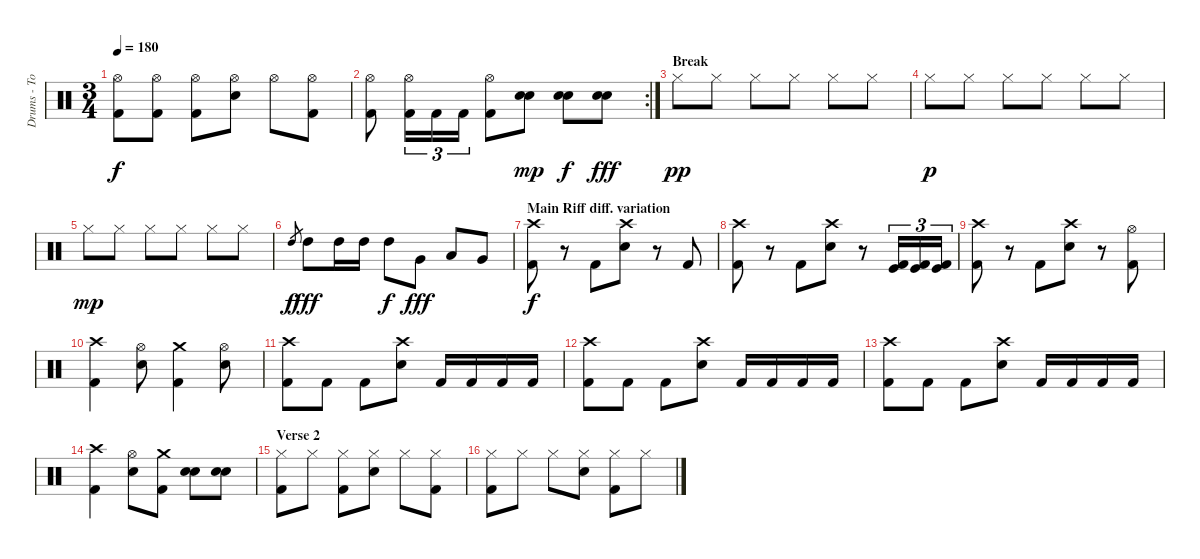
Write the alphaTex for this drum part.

\track ("Drums - Tomas" "Drums - To") {instrument percussion}
\staff {score}
\articulation defaults
\ts (3 4)
\tempo 180
\clef neutral
\ks c
("Hi-Hat (open)" "Kick (hit) 2").8{dy f} ("Hi-Hat (open)" "Kick (hit) 2").8 ("Hi-Hat (open)" "Kick (hit) 2").8 ("Hi-Hat (open)" "Electric Snare (hit)").8 "Hi-Hat (open)".8 ("Hi-Hat (open)" "Kick (hit) 2").8 |
\rc 2
("Hi-Hat (open)" "Kick (hit) 2").8 ("Hi-Hat (open)" "Kick (hit) 2").16{tu (3 2)} "Kick (hit) 2".16{tu (3 2)} "Kick (hit) 2".16{tu (3 2)} ("Hi-Hat (open)" "Kick (hit) 2").8 ("Electric Snare (hit)" "Electric Snare (hit)").8{dy mp} ("Electric Snare (hit)" "Electric Snare (hit)").8{dy f} ("Electric Snare (hit)" "Electric Snare (hit)").8{dy fff} |
\section ("" "Break")
"Hi-Hat (closed)".8{dy pp} "Hi-Hat (closed)".8 "Hi-Hat (closed)".8 "Hi-Hat (closed)".8 "Hi-Hat (closed)".8 "Hi-Hat (closed)".8 |
"Hi-Hat (closed)".8{dy p} "Hi-Hat (closed)".8 "Hi-Hat (closed)".8 "Hi-Hat (closed)".8 "Hi-Hat (closed)".8 "Hi-Hat (closed)".8 |
"Hi-Hat (closed)".8{dy mp} "Hi-Hat (closed)".8 "Hi-Hat (closed)".8 "Hi-Hat (closed)".8 "Hi-Hat (closed)".8 "Hi-Hat (closed)".8 |
"High Tom (hit)".8{gr dy f} "High Tom (hit)".8{dy fff} "High Tom (hit)".16 "High Tom (hit)".16 "High Tom (hit)".8{dy f} "Very Low Tom (hit)".8{dy fff} "Low Tom (hit)".8 "Very Low Tom (hit)".8 |
\section ("" "Main Riff diff. variation")
("Crash high (hit)" "Kick (hit) 2").8{dy f} r.8 "Kick (hit) 2".8 ("Crash high (hit)" "Electric Snare (hit)").8 r.8 "Kick (hit) 2".8 |
("Crash high (hit)" "Kick (hit) 2").8 r.8 "Kick (hit) 2".8 ("Crash high (hit)" "Electric Snare (hit)").8 r.8 ("Kick (hit)" "Kick (hit) 2").16{tu (3 2)} ("Kick (hit)" "Kick (hit) 2").16{tu (3 2)} ("Kick (hit)" "Kick (hit) 2").16{tu (3 2)} |
("Crash high (hit)" "Kick (hit) 2").8 r.8 "Kick (hit) 2".8 ("Crash high (hit)" "Electric Snare (hit)").8 r.8 ("Hi-Hat (open)" "Kick (hit) 2").8 |
("Crash high (hit)" "Kick (hit) 2").4 ("Hi-Hat (open)" "Electric Snare (hit)").8 ("Crash medium (hit)" "Kick (hit) 2").4 ("Hi-Hat (open)" "Electric Snare (hit)").8 |
("Crash high (hit)" "Kick (hit) 2").8 "Kick (hit) 2".8 "Kick (hit) 2".8 ("Crash high (hit)" "Electric Snare (hit)").8 "Kick (hit) 2".16 "Kick (hit) 2".16 "Kick (hit) 2".16 "Kick (hit) 2".16 |
("Crash high (hit)" "Kick (hit) 2").8 "Kick (hit) 2".8 "Kick (hit) 2".8 ("Crash high (hit)" "Electric Snare (hit)").8 "Kick (hit) 2".16 "Kick (hit) 2".16 "Kick (hit) 2".16 "Kick (hit) 2".16 |
("Crash high (hit)" "Kick (hit) 2").8 "Kick (hit) 2".8 "Kick (hit) 2".8 ("Crash high (hit)" "Electric Snare (hit)").8 "Kick (hit) 2".16 "Kick (hit) 2".16 "Kick (hit) 2".16 "Kick (hit) 2".16 |
("Crash high (hit)" "Kick (hit) 2").4 ("Hi-Hat (open)" "Electric Snare (hit)").8 ("Crash medium (hit)" "Kick (hit) 2").8 ("Electric Snare (hit)" "Electric Snare (hit)").8 ("Electric Snare (hit)" "Electric Snare (hit)").8 |
\section ("" "Verse 2")
("Hi-Hat (closed)" "Kick (hit) 2").8 "Hi-Hat (closed)".8 ("Hi-Hat (closed)" "Kick (hit) 2").8 ("Hi-Hat (closed)" "Electric Snare (hit)").8 "Hi-Hat (closed)".8 ("Hi-Hat (closed)" "Kick (hit) 2").8 |
("Hi-Hat (closed)" "Kick (hit) 2").8 "Hi-Hat (closed)".8 "Hi-Hat (closed)".8 ("Hi-Hat (closed)" "Electric Snare (hit)").8 ("Hi-Hat (closed)" "Kick (hit) 2").8 "Hi-Hat (closed)".8
